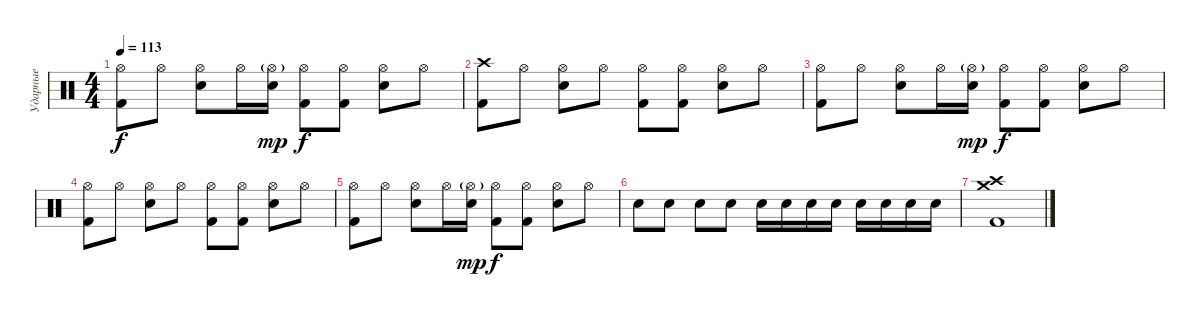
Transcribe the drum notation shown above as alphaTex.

\track ("Ударные" "Ударные") {instrument percussion}
\staff {score}
\articulation defaults
\ts (4 4)
\tempo 113
\clef neutral
\ks c
("Hi-Hat (open)" "Kick (hit) 2").8{dy f} "Hi-Hat (open)".8 ("Hi-Hat (open)" "Snare (hit) 2").8 "Hi-Hat (open)".16 ("Hi-Hat (open)"{g} "Snare (hit) 2").16{dy mp} ("Hi-Hat (open)" "Kick (hit) 2").8{dy f} ("Hi-Hat (open)" "Kick (hit) 2").8 ("Hi-Hat (open)" "Snare (hit) 2").8 "Hi-Hat (open)".8 |
("Crash high (hit)" "Kick (hit) 2").8 "Hi-Hat (open)".8 ("Hi-Hat (open)" "Snare (hit) 2").8 "Hi-Hat (open)".8 ("Hi-Hat (open)" "Kick (hit) 2").8 ("Hi-Hat (open)" "Kick (hit) 2").8 ("Hi-Hat (open)" "Snare (hit) 2").8 "Hi-Hat (open)".8 |
("Hi-Hat (open)" "Kick (hit) 2").8 "Hi-Hat (open)".8 ("Hi-Hat (open)" "Snare (hit) 2").8 "Hi-Hat (open)".16 ("Hi-Hat (open)"{g} "Snare (hit) 2").16{dy mp} ("Hi-Hat (open)" "Kick (hit) 2").8{dy f} ("Hi-Hat (open)" "Kick (hit) 2").8 ("Hi-Hat (open)" "Snare (hit) 2").8 "Hi-Hat (open)".8 |
("Hi-Hat (open)" "Kick (hit) 2").8 "Hi-Hat (open)".8 ("Hi-Hat (open)" "Snare (hit) 2").8 "Hi-Hat (open)".8 ("Hi-Hat (open)" "Kick (hit) 2").8 ("Hi-Hat (open)" "Kick (hit) 2").8 ("Hi-Hat (open)" "Snare (hit) 2").8 "Hi-Hat (open)".8 |
("Hi-Hat (open)" "Kick (hit) 2").8 "Hi-Hat (open)".8 ("Hi-Hat (open)" "Snare (hit) 2").8 "Hi-Hat (open)".16 ("Hi-Hat (open)"{g} "Snare (hit) 2").16{dy mp} ("Hi-Hat (open)" "Kick (hit) 2").8{dy f} ("Hi-Hat (open)" "Kick (hit) 2").8 ("Hi-Hat (open)" "Snare (hit) 2").8 "Hi-Hat (open)".8 |
"Snare (hit) 2".8 "Snare (hit) 2".8 "Snare (hit) 2".8 "Snare (hit) 2".8 "Snare (hit) 2".16 "Snare (hit) 2".16 "Snare (hit) 2".16 "Snare (hit) 2".16 "Snare (hit) 2".16 "Snare (hit) 2".16 "Snare (hit) 2".16 "Snare (hit) 2".16 |
("Crash medium (hit)" "Crash high (hit)" "Kick (hit) 2").1
